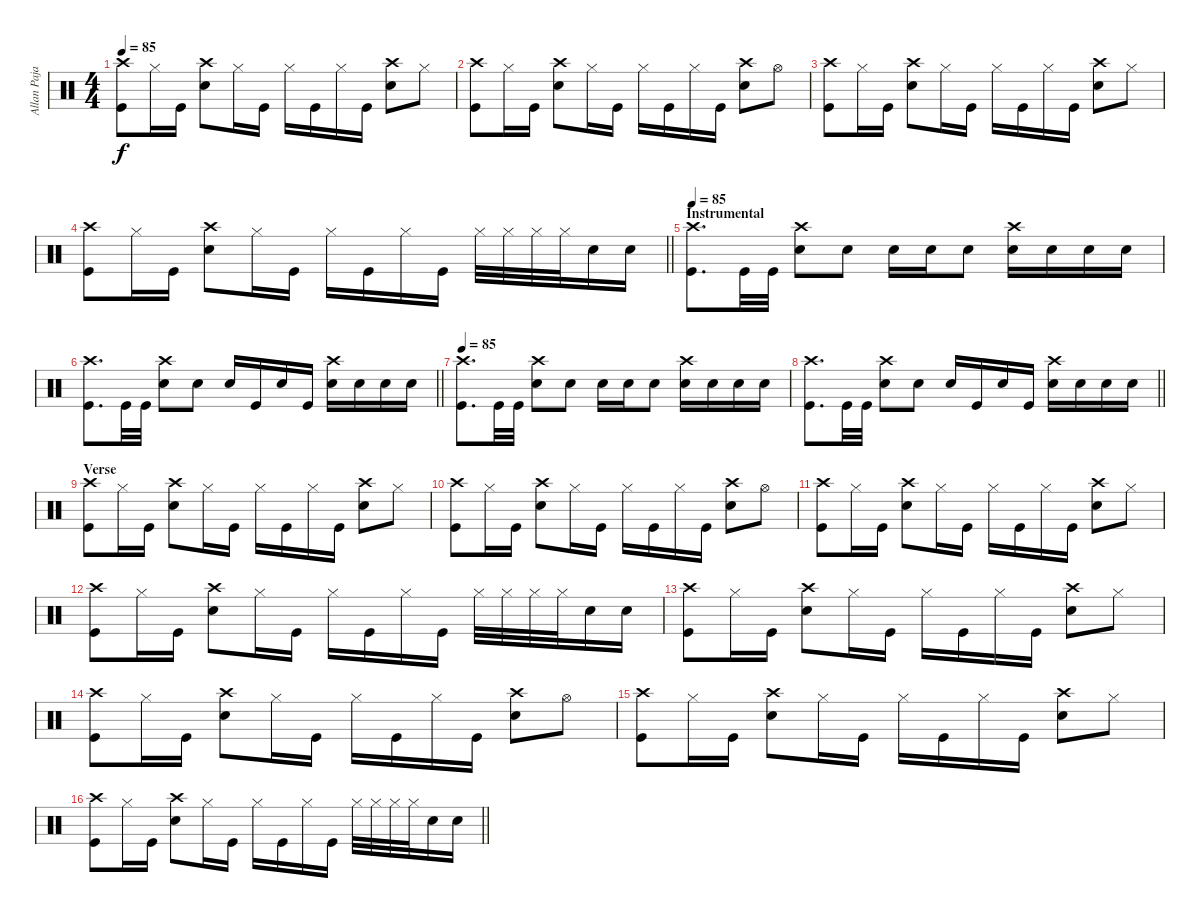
\track ("Allan Pajarin (Drums)" "Allan Paja") {instrument percussion}
\staff {score}
\articulation defaults
\ts (4 4)
\tempo 85
\clef neutral
\ks c
("Crash high (hit)" "Kick (hit)").8{dy f} "Hi-Hat (closed)".16 "Kick (hit)".16 ("Electric Snare (hit)" "Crash high (hit)").8 "Hi-Hat (closed)".16 "Kick (hit)".16 "Hi-Hat (closed)".16 "Kick (hit)".16 "Hi-Hat (closed)".16 "Kick (hit)".16 ("Crash high (hit)" "Electric Snare (hit)").8 "Hi-Hat (closed)".8 |
("Crash high (hit)" "Kick (hit)").8 "Hi-Hat (closed)".16 "Kick (hit)".16 ("Crash high (hit)" "Electric Snare (hit)").8 "Hi-Hat (closed)".16 "Kick (hit)".16 "Hi-Hat (closed)".16 "Kick (hit)".16 "Hi-Hat (closed)".16 "Kick (hit)".16 ("Crash high (hit)" "Electric Snare (hit)").8 "Hi-Hat (open)".8 |
("Crash high (hit)" "Kick (hit)").8 "Hi-Hat (closed)".16 "Kick (hit)".16 ("Crash high (hit)" "Electric Snare (hit)").8 "Hi-Hat (closed)".16 "Kick (hit)".16 "Hi-Hat (closed)".16 "Kick (hit)".16 "Hi-Hat (closed)".16 "Kick (hit)".16 ("Crash high (hit)" "Electric Snare (hit)").8 "Hi-Hat (closed)".8 |
\barLineRight lightlight
("Crash high (hit)" "Kick (hit)").8 "Hi-Hat (closed)".16 "Kick (hit)".16 ("Crash high (hit)" "Electric Snare (hit)").8 "Hi-Hat (closed)".16 "Kick (hit)".16 "Hi-Hat (closed)".16 "Kick (hit)".16 "Hi-Hat (closed)".16 "Kick (hit)".16 "Hi-Hat (closed)".32 "Hi-Hat (closed)".32 "Hi-Hat (closed)".32 "Hi-Hat (closed)".32 "Electric Snare (hit)".16 "Electric Snare (hit)".16 |
\section ("" "Instrumental")
\tempo 85
("Crash high (hit)" "Kick (hit)").8{d volume 13} "Kick (hit)".32 "Kick (hit)".32 ("Crash high (hit)" "Electric Snare (hit)").8 "Electric Snare (hit)".8 "Electric Snare (hit)".16 "Electric Snare (hit)".16 "Electric Snare (hit)".8 ("Electric Snare (hit)" "Crash high (hit)").16 "Electric Snare (hit)".16 "Electric Snare (hit)".16 "Electric Snare (hit)".16 |
\barLineRight lightlight
("Crash high (hit)" "Kick (hit)").8{d} "Kick (hit)".32 "Kick (hit)".32 ("Crash high (hit)" "Electric Snare (hit)").8 "Electric Snare (hit)".8 "Electric Snare (hit)".16 "Kick (hit)".16 "Electric Snare (hit)".16 "Kick (hit)".16 ("Electric Snare (hit)" "Crash high (hit)").16 "Electric Snare (hit)".16 "Electric Snare (hit)".16 "Electric Snare (hit)".16 |
\tempo 85
("Crash high (hit)" "Kick (hit)").8{d volume 13} "Kick (hit)".32 "Kick (hit)".32 ("Crash high (hit)" "Electric Snare (hit)").8 "Electric Snare (hit)".8 "Electric Snare (hit)".16 "Electric Snare (hit)".16 "Electric Snare (hit)".8 ("Electric Snare (hit)" "Crash high (hit)").16 "Electric Snare (hit)".16 "Electric Snare (hit)".16 "Electric Snare (hit)".16 |
\barLineRight lightlight
("Crash high (hit)" "Kick (hit)").8{d} "Kick (hit)".32 "Kick (hit)".32 ("Crash high (hit)" "Electric Snare (hit)").8 "Electric Snare (hit)".8 "Electric Snare (hit)".16 "Kick (hit)".16 "Electric Snare (hit)".16 "Kick (hit)".16 ("Electric Snare (hit)" "Crash high (hit)").16 "Electric Snare (hit)".16 "Electric Snare (hit)".16 "Electric Snare (hit)".16 |
\section ("" "Verse")
("Crash high (hit)" "Kick (hit)").8 "Hi-Hat (closed)".16 "Kick (hit)".16 ("Crash high (hit)" "Electric Snare (hit)").8 "Hi-Hat (closed)".16 "Kick (hit)".16 "Hi-Hat (closed)".16 "Kick (hit)".16 "Hi-Hat (closed)".16 "Kick (hit)".16 ("Crash high (hit)" "Electric Snare (hit)").8 "Hi-Hat (closed)".8 |
("Kick (hit)" "Crash high (hit)").8 "Hi-Hat (closed)".16 "Kick (hit)".16 ("Crash high (hit)" "Electric Snare (hit)").8 "Hi-Hat (closed)".16 "Kick (hit)".16 "Hi-Hat (closed)".16 "Kick (hit)".16 "Hi-Hat (closed)".16 "Kick (hit)".16 ("Crash high (hit)" "Electric Snare (hit)").8 "Hi-Hat (open)".8 |
("Crash high (hit)" "Kick (hit)").8 "Hi-Hat (closed)".16 "Kick (hit)".16 ("Crash high (hit)" "Electric Snare (hit)").8 "Hi-Hat (closed)".16 "Kick (hit)".16 "Hi-Hat (closed)".16 "Kick (hit)".16 "Hi-Hat (closed)".16 "Kick (hit)".16 ("Electric Snare (hit)" "Crash high (hit)").8 "Hi-Hat (closed)".8 |
("Crash high (hit)" "Kick (hit)").8 "Hi-Hat (closed)".16 "Kick (hit)".16 ("Crash high (hit)" "Electric Snare (hit)").8 "Hi-Hat (closed)".16 "Kick (hit)".16 "Hi-Hat (closed)".16 "Kick (hit)".16 "Hi-Hat (closed)".16 "Kick (hit)".16 "Hi-Hat (closed)".32 "Hi-Hat (closed)".32 "Hi-Hat (closed)".32 "Hi-Hat (closed)".32 "Electric Snare (hit)".16 "Electric Snare (hit)".16 |
("Crash high (hit)" "Kick (hit)").8 "Hi-Hat (closed)".16 "Kick (hit)".16 ("Electric Snare (hit)" "Crash high (hit)").8 "Hi-Hat (closed)".16 "Kick (hit)".16 "Hi-Hat (closed)".16 "Kick (hit)".16 "Hi-Hat (closed)".16 "Kick (hit)".16 ("Crash high (hit)" "Electric Snare (hit)").8 "Hi-Hat (closed)".8 |
("Crash high (hit)" "Kick (hit)").8 "Hi-Hat (closed)".16 "Kick (hit)".16 ("Crash high (hit)" "Electric Snare (hit)").8 "Hi-Hat (closed)".16 "Kick (hit)".16 "Hi-Hat (closed)".16 "Kick (hit)".16 "Hi-Hat (closed)".16 "Kick (hit)".16 ("Crash high (hit)" "Electric Snare (hit)").8 "Hi-Hat (open)".8 |
("Crash high (hit)" "Kick (hit)").8 "Hi-Hat (closed)".16 "Kick (hit)".16 ("Crash high (hit)" "Electric Snare (hit)").8 "Hi-Hat (closed)".16 "Kick (hit)".16 "Hi-Hat (closed)".16 "Kick (hit)".16 "Hi-Hat (closed)".16 "Kick (hit)".16 ("Crash high (hit)" "Electric Snare (hit)").8 "Hi-Hat (closed)".8 |
\barLineRight lightlight
("Crash high (hit)" "Kick (hit)").8 "Hi-Hat (closed)".16 "Kick (hit)".16 ("Crash high (hit)" "Electric Snare (hit)").8 "Hi-Hat (closed)".16 "Kick (hit)".16 "Hi-Hat (closed)".16 "Kick (hit)".16 "Hi-Hat (closed)".16 "Kick (hit)".16 "Hi-Hat (closed)".32 "Hi-Hat (closed)".32 "Hi-Hat (closed)".32 "Hi-Hat (closed)".32 "Electric Snare (hit)".16 "Electric Snare (hit)".16
